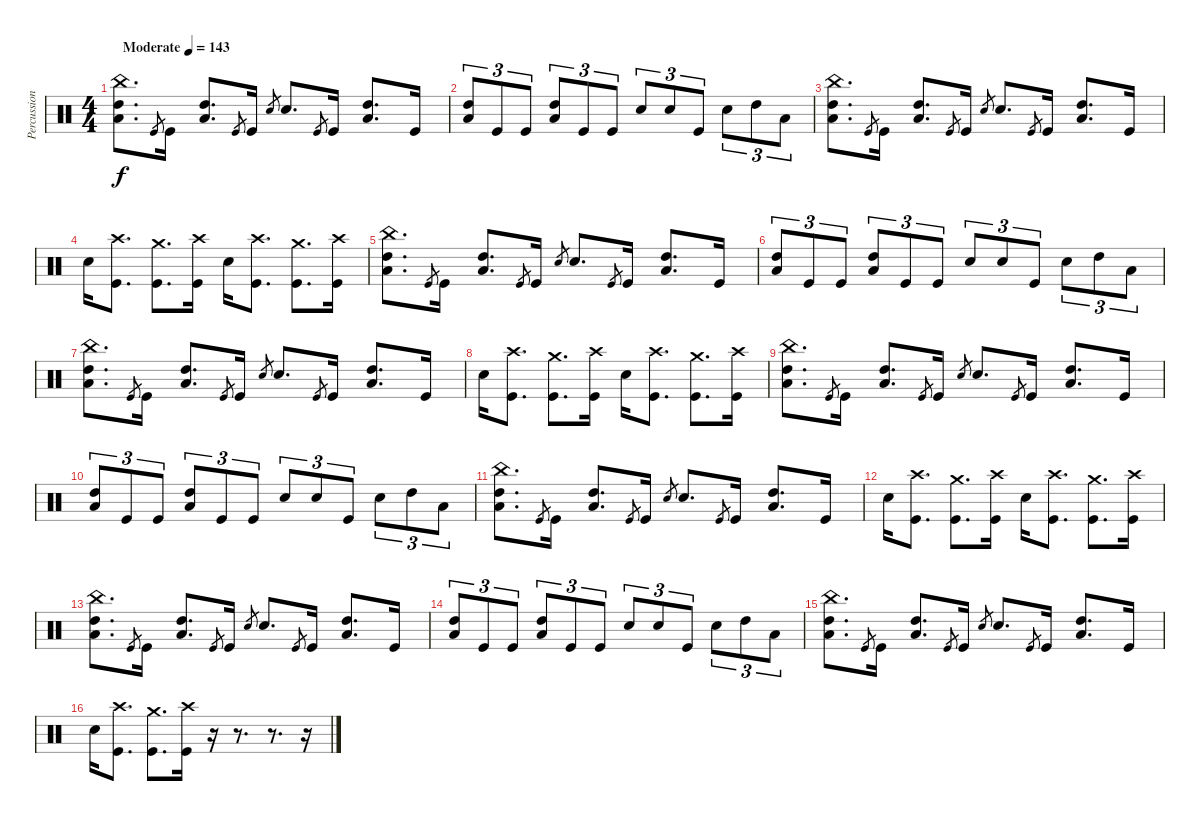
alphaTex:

\track ("Percussion" "Percussion") {instrument percussion}
\staff {score}
\articulation defaults
\ts (4 4)
\tempo (143 "Moderate")
\clef neutral
\ks c
("High Tom (hit)" "Low Floor Tom (hit)" "China (hit)").8{d dy f} "Kick (hit)".8{gr} "Kick (hit)".16 ("High Tom (hit)" "Low Floor Tom (hit)").8{d} "Kick (hit)".8{gr} "Kick (hit)".16 "Snare (hit) 2".8{gr} "Snare (hit) 2".8{d} "Kick (hit)".8{gr} "Kick (hit)".16 ("High Tom (hit)" "Low Floor Tom (hit)").8{d} "Kick (hit)".16 |
("Low Floor Tom (hit)" "High Tom (hit)").8{tu (3 2)} "Kick (hit)".8{tu (3 2)} "Kick (hit)".8{tu (3 2)} ("Low Floor Tom (hit)" "High Tom (hit)").8{tu (3 2)} "Kick (hit)".8{tu (3 2)} "Kick (hit)".8{tu (3 2)} "Snare (hit) 2".8{tu (3 2)} "Snare (hit) 2".8{tu (3 2)} "Kick (hit)".8{tu (3 2)} "Snare (hit) 2".8{tu (3 2)} "High Tom (hit)".8{tu (3 2)} "Low Floor Tom (hit)".8{tu (3 2)} |
("High Tom (hit)" "Low Floor Tom (hit)" "China (hit)").8{d} "Kick (hit)".8{gr} "Kick (hit)".16 ("High Tom (hit)" "Low Floor Tom (hit)").8{d} "Kick (hit)".8{gr} "Kick (hit)".16 "Snare (hit) 2".8{gr} "Snare (hit) 2".8{d} "Kick (hit)".8{gr} "Kick (hit)".16 ("High Tom (hit)" "Low Floor Tom (hit)").8{d} "Kick (hit)".16 |
"Snare (hit) 2".16 ("Crash high (hit)" "Kick (hit)").8{d} ("Crash medium (hit)" "Kick (hit)").8{d} ("Crash high (hit)" "Kick (hit)").16 "Snare (hit) 2".16 ("Crash high (hit)" "Kick (hit)").8{d} ("Crash medium (hit)" "Kick (hit)").8{d} ("Crash high (hit)" "Kick (hit)").16 |
("High Tom (hit)" "Low Floor Tom (hit)" "China (hit)").8{d} "Kick (hit)".8{gr} "Kick (hit)".16 ("High Tom (hit)" "Low Floor Tom (hit)").8{d} "Kick (hit)".8{gr} "Kick (hit)".16 "Snare (hit) 2".8{gr} "Snare (hit) 2".8{d} "Kick (hit)".8{gr} "Kick (hit)".16 ("High Tom (hit)" "Low Floor Tom (hit)").8{d} "Kick (hit)".16 |
("Low Floor Tom (hit)" "High Tom (hit)").8{tu (3 2)} "Kick (hit)".8{tu (3 2)} "Kick (hit)".8{tu (3 2)} ("Low Floor Tom (hit)" "High Tom (hit)").8{tu (3 2)} "Kick (hit)".8{tu (3 2)} "Kick (hit)".8{tu (3 2)} "Snare (hit) 2".8{tu (3 2)} "Snare (hit) 2".8{tu (3 2)} "Kick (hit)".8{tu (3 2)} "Snare (hit) 2".8{tu (3 2)} "High Tom (hit)".8{tu (3 2)} "Low Floor Tom (hit)".8{tu (3 2)} |
("High Tom (hit)" "Low Floor Tom (hit)" "China (hit)").8{d} "Kick (hit)".8{gr} "Kick (hit)".16 ("High Tom (hit)" "Low Floor Tom (hit)").8{d} "Kick (hit)".8{gr} "Kick (hit)".16 "Snare (hit) 2".8{gr} "Snare (hit) 2".8{d} "Kick (hit)".8{gr} "Kick (hit)".16 ("High Tom (hit)" "Low Floor Tom (hit)").8{d} "Kick (hit)".16 |
"Snare (hit) 2".16 ("Crash high (hit)" "Kick (hit)").8{d} ("Crash medium (hit)" "Kick (hit)").8{d} ("Crash high (hit)" "Kick (hit)").16 "Snare (hit) 2".16 ("Crash high (hit)" "Kick (hit)").8{d} ("Crash medium (hit)" "Kick (hit)").8{d} ("Crash high (hit)" "Kick (hit)").16 |
("High Tom (hit)" "Low Floor Tom (hit)" "China (hit)").8{d} "Kick (hit)".8{gr} "Kick (hit)".16 ("High Tom (hit)" "Low Floor Tom (hit)").8{d} "Kick (hit)".8{gr} "Kick (hit)".16 "Snare (hit) 2".8{gr} "Snare (hit) 2".8{d} "Kick (hit)".8{gr} "Kick (hit)".16 ("High Tom (hit)" "Low Floor Tom (hit)").8{d} "Kick (hit)".16 |
("Low Floor Tom (hit)" "High Tom (hit)").8{tu (3 2)} "Kick (hit)".8{tu (3 2)} "Kick (hit)".8{tu (3 2)} ("Low Floor Tom (hit)" "High Tom (hit)").8{tu (3 2)} "Kick (hit)".8{tu (3 2)} "Kick (hit)".8{tu (3 2)} "Snare (hit) 2".8{tu (3 2)} "Snare (hit) 2".8{tu (3 2)} "Kick (hit)".8{tu (3 2)} "Snare (hit) 2".8{tu (3 2)} "High Tom (hit)".8{tu (3 2)} "Low Floor Tom (hit)".8{tu (3 2)} |
("High Tom (hit)" "Low Floor Tom (hit)" "China (hit)").8{d} "Kick (hit)".8{gr} "Kick (hit)".16 ("High Tom (hit)" "Low Floor Tom (hit)").8{d} "Kick (hit)".8{gr} "Kick (hit)".16 "Snare (hit) 2".8{gr} "Snare (hit) 2".8{d} "Kick (hit)".8{gr} "Kick (hit)".16 ("High Tom (hit)" "Low Floor Tom (hit)").8{d} "Kick (hit)".16 |
"Snare (hit) 2".16 ("Crash high (hit)" "Kick (hit)").8{d} ("Crash medium (hit)" "Kick (hit)").8{d} ("Crash high (hit)" "Kick (hit)").16 "Snare (hit) 2".16 ("Crash high (hit)" "Kick (hit)").8{d} ("Crash medium (hit)" "Kick (hit)").8{d} ("Crash high (hit)" "Kick (hit)").16 |
("High Tom (hit)" "Low Floor Tom (hit)" "China (hit)").8{d} "Kick (hit)".8{gr} "Kick (hit)".16 ("High Tom (hit)" "Low Floor Tom (hit)").8{d} "Kick (hit)".8{gr} "Kick (hit)".16 "Snare (hit) 2".8{gr} "Snare (hit) 2".8{d} "Kick (hit)".8{gr} "Kick (hit)".16 ("High Tom (hit)" "Low Floor Tom (hit)").8{d} "Kick (hit)".16 |
("Low Floor Tom (hit)" "High Tom (hit)").8{tu (3 2)} "Kick (hit)".8{tu (3 2)} "Kick (hit)".8{tu (3 2)} ("Low Floor Tom (hit)" "High Tom (hit)").8{tu (3 2)} "Kick (hit)".8{tu (3 2)} "Kick (hit)".8{tu (3 2)} "Snare (hit) 2".8{tu (3 2)} "Snare (hit) 2".8{tu (3 2)} "Kick (hit)".8{tu (3 2)} "Snare (hit) 2".8{tu (3 2)} "High Tom (hit)".8{tu (3 2)} "Low Floor Tom (hit)".8{tu (3 2)} |
("High Tom (hit)" "Low Floor Tom (hit)" "China (hit)").8{d} "Kick (hit)".8{gr} "Kick (hit)".16 ("High Tom (hit)" "Low Floor Tom (hit)").8{d} "Kick (hit)".8{gr} "Kick (hit)".16 "Snare (hit) 2".8{gr} "Snare (hit) 2".8{d} "Kick (hit)".8{gr} "Kick (hit)".16 ("High Tom (hit)" "Low Floor Tom (hit)").8{d} "Kick (hit)".16 |
"Snare (hit) 2".16 ("Crash high (hit)" "Kick (hit)").8{d} ("Crash medium (hit)" "Kick (hit)").8{d} ("Crash high (hit)" "Kick (hit)").16 r.16 r.8{d} r.8{d} r.16
